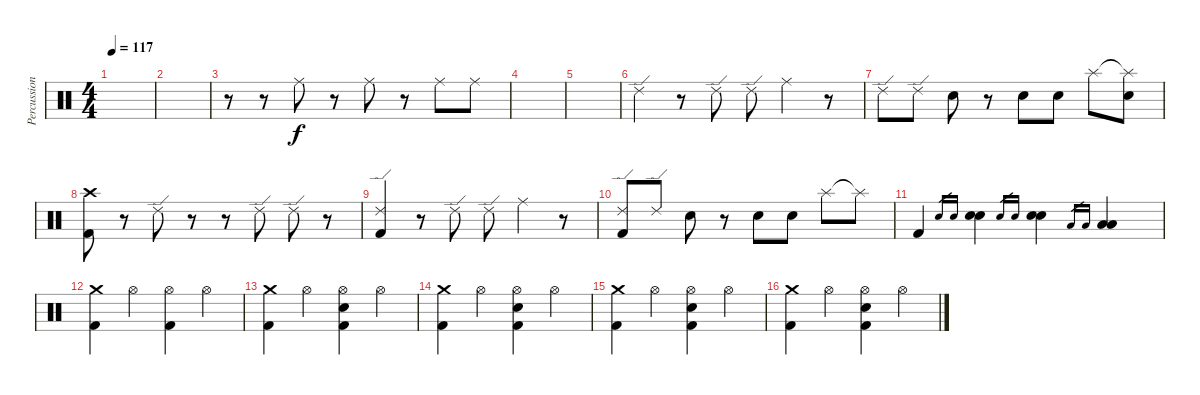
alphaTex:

\track ("Percussions" "Percussion") {instrument percussion}
\staff {score}
\articulation defaults
\ts (4 4)
\tempo 117
\clef neutral
\ks c
|
|
r.8 r.8 "Ride (middle)".8 r.8 "Ride (middle)".8 r.8 "Ride (middle)".8 "Ride (middle)".8 |
|
|
"Ride (edge) 2".4 r.8 "Ride (edge) 2".8 "Ride (edge) 2".8 "Ride (middle)".4 r.8 |
"Ride (edge) 2".8 "Ride (edge) 2".8 "Electric Snare (hit)".8 r.8 "Electric Snare (hit)".8 "Snare (hit) 2".8 "Splash (hit)".8 ("Splash (hit)"{t} "Snare (hit) 2").8 |
("Crash high (hit)" "Kick (hit) 2").8 r.8 "Ride (edge) 2".8 r.8 r.8 "Ride (edge) 2".8 "Ride (edge) 2".8 r.8 |
("Ride (edge) 2" "Kick (hit) 2").4 r.8 "Ride (edge) 2".8 "Ride (edge) 2".8 "Ride (middle)".4 r.8 |
("Ride (edge) 2" "Kick (hit) 2").8 "Ride (edge) 2".8 "Electric Snare (hit)".8 r.8 "Electric Snare (hit)".8 "Snare (hit) 2".8 "Splash (hit)".8 "Splash (hit)"{t}.8 |
"Kick (hit) 2".4 "Electric Snare (hit)".16{gr} "Electric Snare (hit)".16{gr} ("Electric Snare (hit)" "Electric Snare (hit)").4 "Snare (hit) 2".16{gr} "Snare (hit) 2".16{gr} ("Snare (hit) 2" "Snare (hit) 2").4 "Low Floor Tom (hit)".16{gr} "Low Floor Tom (hit)".16{gr} ("Low Floor Tom (hit)" "Low Floor Tom (hit)").4 |
("Crash medium (hit)" "Kick (hit) 2").4 "Hi-Hat (open)".4 ("Hi-Hat (open)" "Kick (hit) 2"{tr (36 16)}).4 "Hi-Hat (open)".4 |
("Crash medium (hit)" "Kick (hit) 2").4 "Hi-Hat (open)".4 ("Hi-Hat (open)" "Electric Snare (hit)" "Kick (hit) 2"{tr (36 16)}).4 "Hi-Hat (open)".4 |
("Crash medium (hit)" "Kick (hit) 2").4 "Hi-Hat (open)".4 ("Hi-Hat (open)" "Electric Snare (hit)" "Kick (hit) 2"{tr (36 16)}).4 "Hi-Hat (open)".4 |
("Crash medium (hit)" "Kick (hit) 2").4 "Hi-Hat (open)".4 ("Hi-Hat (open)" "Electric Snare (hit)" "Kick (hit) 2"{tr (36 16)}).4 "Hi-Hat (open)".4 |
("Crash medium (hit)" "Kick (hit) 2").4 "Hi-Hat (open)".4 ("Hi-Hat (open)" "Electric Snare (hit)" "Kick (hit) 2"{tr (36 16)}).4 "Hi-Hat (open)".4
